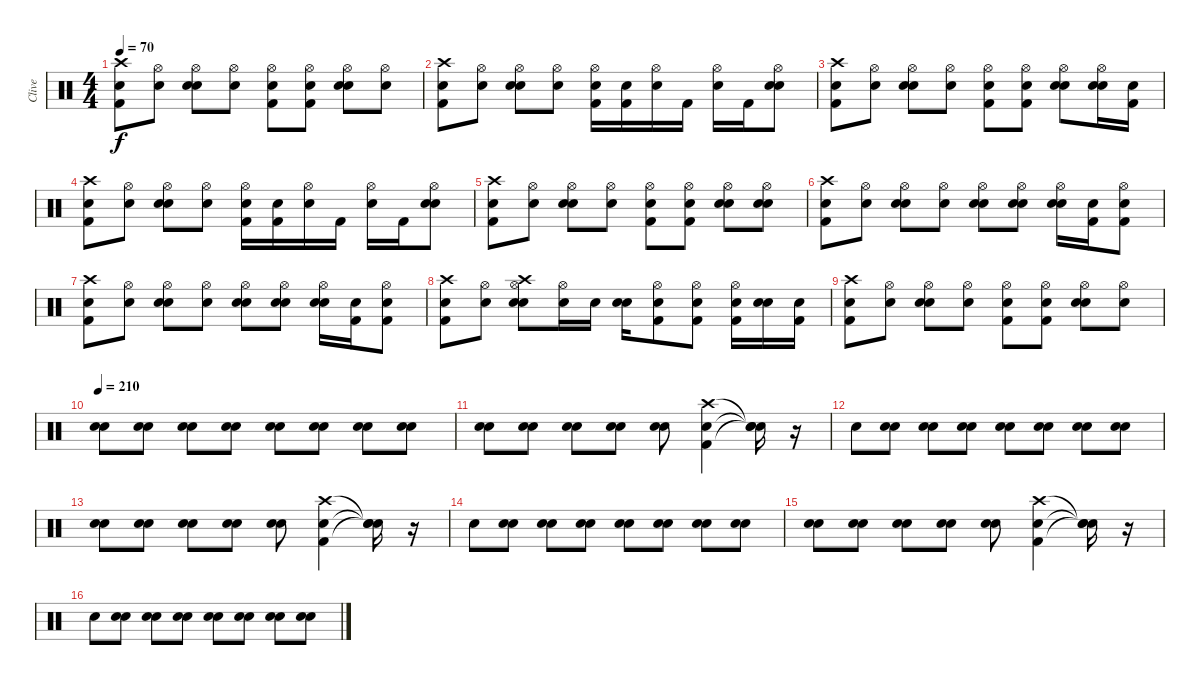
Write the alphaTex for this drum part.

\track ("Clive" "Clive") {instrument percussion}
\staff {score}
\articulation defaults
\ts (4 4)
\tempo 70
\clef neutral
\ks c
("Snare (hit)" "Kick (hit) 2" "Crash high (hit)").8{dy f} ("Snare (hit)" "Hi-Hat (open)").8 ("Snare (hit)" "Snare (hit) 2" "Hi-Hat (open)").8 ("Snare (hit)" "Hi-Hat (open)").8 ("Snare (hit)" "Kick (hit) 2" "Hi-Hat (open)").8 ("Snare (hit)" "Kick (hit) 2" "Hi-Hat (open)").8 ("Snare (hit)" "Snare (hit) 2" "Hi-Hat (open)").8 ("Snare (hit)" "Hi-Hat (open)").8 |
("Snare (hit)" "Kick (hit) 2" "Crash high (hit)").8 ("Snare (hit)" "Hi-Hat (open)").8 ("Snare (hit)" "Snare (hit) 2" "Hi-Hat (open)").8 ("Snare (hit)" "Hi-Hat (open)").8 ("Snare (hit)" "Kick (hit) 2" "Hi-Hat (open)").16 ("Snare (hit)" "Kick (hit) 2").16 ("Snare (hit)" "Hi-Hat (open)").16 "Kick (hit) 2".16 ("Snare (hit)" "Hi-Hat (open)").16 "Kick (hit) 2".16 ("Snare (hit)" "Snare (hit) 2" "Hi-Hat (open)").8 |
("Snare (hit)" "Kick (hit) 2" "Crash high (hit)").8 ("Snare (hit)" "Hi-Hat (open)").8 ("Snare (hit)" "Snare (hit) 2" "Hi-Hat (open)").8 ("Snare (hit)" "Hi-Hat (open)").8 ("Snare (hit)" "Kick (hit) 2" "Hi-Hat (open)").8 ("Snare (hit)" "Kick (hit) 2" "Hi-Hat (open)").8 ("Snare (hit)" "Snare (hit) 2" "Hi-Hat (open)").8 ("Snare (hit)" "Snare (hit) 2" "Hi-Hat (open)").16 ("Snare (hit)" "Kick (hit) 2").16 |
("Snare (hit)" "Kick (hit) 2" "Crash high (hit)").8 ("Snare (hit)" "Hi-Hat (open)").8 ("Snare (hit)" "Snare (hit) 2" "Hi-Hat (open)").8 ("Snare (hit)" "Hi-Hat (open)").8 ("Snare (hit)" "Kick (hit) 2" "Hi-Hat (open)").16 ("Snare (hit)" "Kick (hit) 2").16 ("Snare (hit)" "Hi-Hat (open)").16 "Kick (hit) 2".16 ("Snare (hit)" "Hi-Hat (open)").16 "Kick (hit) 2".16 ("Snare (hit)" "Snare (hit) 2" "Hi-Hat (open)").8 |
("Snare (hit)" "Kick (hit) 2" "Crash high (hit)").8 ("Snare (hit)" "Hi-Hat (open)").8 ("Snare (hit)" "Snare (hit) 2" "Hi-Hat (open)").8 ("Snare (hit)" "Hi-Hat (open)").8 ("Snare (hit)" "Kick (hit) 2" "Hi-Hat (open)").8 ("Snare (hit)" "Kick (hit) 2" "Hi-Hat (open)").8 ("Snare (hit)" "Snare (hit) 2" "Hi-Hat (open)").8 ("Snare (hit)" "Snare (hit) 2" "Hi-Hat (open)").8 |
("Snare (hit)" "Kick (hit) 2" "Crash high (hit)").8 ("Snare (hit)" "Hi-Hat (open)").8 ("Snare (hit)" "Snare (hit) 2" "Hi-Hat (open)").8 ("Snare (hit)" "Hi-Hat (open)").8 ("Snare (hit)" "Snare (hit) 2" "Hi-Hat (open)").8 ("Snare (hit)" "Snare (hit) 2" "Hi-Hat (open)").8 ("Snare (hit)" "Snare (hit) 2" "Hi-Hat (open)").16 ("Snare (hit)" "Kick (hit) 2").16 ("Snare (hit)" "Kick (hit) 2" "Hi-Hat (open)").8 |
("Snare (hit)" "Kick (hit) 2" "Crash high (hit)").8 ("Snare (hit)" "Hi-Hat (open)").8 ("Snare (hit)" "Snare (hit) 2" "Hi-Hat (open)").8 ("Snare (hit)" "Hi-Hat (open)").8 ("Snare (hit)" "Snare (hit) 2" "Hi-Hat (open)").8 ("Snare (hit)" "Snare (hit) 2" "Hi-Hat (open)").8 ("Snare (hit)" "Snare (hit) 2" "Hi-Hat (open)").16 ("Snare (hit)" "Kick (hit) 2").16 ("Snare (hit)" "Kick (hit) 2" "Hi-Hat (open)").8 |
("Snare (hit)" "Kick (hit) 2" "Crash high (hit)").8 ("Snare (hit)" "Hi-Hat (open)").8 ("Snare (hit)" "Snare (hit) 2" "Hi-Hat (open)" "Crash high (hit)").8 ("Snare (hit)" "Hi-Hat (open)").16 "Snare (hit) 2".16 ("Snare (hit)" "Snare (hit) 2").16 ("Snare (hit)" "Kick (hit) 2" "Hi-Hat (open)").8 ("Snare (hit)" "Kick (hit) 2" "Hi-Hat (open)").8 ("Snare (hit)" "Kick (hit) 2" "Hi-Hat (open)").16 ("Snare (hit)" "Snare (hit) 2").16 ("Snare (hit)" "Kick (hit) 2").16 |
("Snare (hit)" "Kick (hit) 2" "Crash high (hit)").8 ("Snare (hit)" "Hi-Hat (open)").8 ("Snare (hit)" "Snare (hit) 2" "Hi-Hat (open)").8 ("Snare (hit)" "Hi-Hat (open)").8 ("Snare (hit)" "Kick (hit) 2" "Hi-Hat (open)").8 ("Snare (hit)" "Kick (hit) 2" "Hi-Hat (open)").8 ("Snare (hit)" "Snare (hit) 2" "Hi-Hat (open)").8 ("Snare (hit)" "Hi-Hat (open)").8 |
\tempo 210
("Snare (hit)" "Snare (hit) 2").8 ("Snare (hit)" "Snare (hit) 2").8 ("Snare (hit)" "Snare (hit) 2").8 ("Snare (hit)" "Snare (hit) 2").8 ("Snare (hit)" "Snare (hit) 2").8 ("Snare (hit)" "Snare (hit) 2").8 ("Snare (hit)" "Snare (hit) 2").8 ("Snare (hit)" "Snare (hit) 2").8 |
("Snare (hit)" "Snare (hit) 2").8 ("Snare (hit)" "Snare (hit) 2").8 ("Snare (hit)" "Snare (hit) 2").8 ("Snare (hit)" "Snare (hit) 2").8 ("Snare (hit)" "Snare (hit) 2").8 ("Snare (hit)" "Kick (hit) 2" "Crash high (hit)").4 ("Snare (hit)"{t} "Snare (hit)"{t} "Snare (hit)"{t}).16 r.16 |
"Snare (hit) 2".8 ("Snare (hit)" "Snare (hit) 2").8 ("Snare (hit)" "Snare (hit) 2").8 ("Snare (hit)" "Snare (hit) 2").8 ("Snare (hit)" "Snare (hit) 2").8 ("Snare (hit)" "Snare (hit) 2").8 ("Snare (hit)" "Snare (hit) 2").8 ("Snare (hit)" "Snare (hit) 2").8 |
("Snare (hit)" "Snare (hit) 2").8 ("Snare (hit)" "Snare (hit) 2").8 ("Snare (hit)" "Snare (hit) 2").8 ("Snare (hit)" "Snare (hit) 2").8 ("Snare (hit)" "Snare (hit) 2").8 ("Snare (hit)" "Kick (hit) 2" "Crash high (hit)").4 ("Snare (hit)"{t} "Snare (hit)"{t} "Snare (hit)"{t}).16 r.16 |
"Snare (hit) 2".8 ("Snare (hit)" "Snare (hit) 2").8 ("Snare (hit)" "Snare (hit) 2").8 ("Snare (hit)" "Snare (hit) 2").8 ("Snare (hit)" "Snare (hit) 2").8 ("Snare (hit)" "Snare (hit) 2").8 ("Snare (hit)" "Snare (hit) 2").8 ("Snare (hit)" "Snare (hit) 2").8 |
("Snare (hit)" "Snare (hit) 2").8 ("Snare (hit)" "Snare (hit) 2").8 ("Snare (hit)" "Snare (hit) 2").8 ("Snare (hit)" "Snare (hit) 2").8 ("Snare (hit)" "Snare (hit) 2").8 ("Snare (hit)" "Kick (hit) 2" "Crash high (hit)").4 ("Snare (hit)"{t} "Snare (hit)"{t} "Snare (hit)"{t}).16 r.16 |
"Snare (hit) 2".8 ("Snare (hit)" "Snare (hit) 2").8 ("Snare (hit)" "Snare (hit) 2").8 ("Snare (hit)" "Snare (hit) 2").8 ("Snare (hit)" "Snare (hit) 2").8 ("Snare (hit)" "Snare (hit) 2").8 ("Snare (hit)" "Snare (hit) 2").8 ("Snare (hit)" "Snare (hit) 2").8
